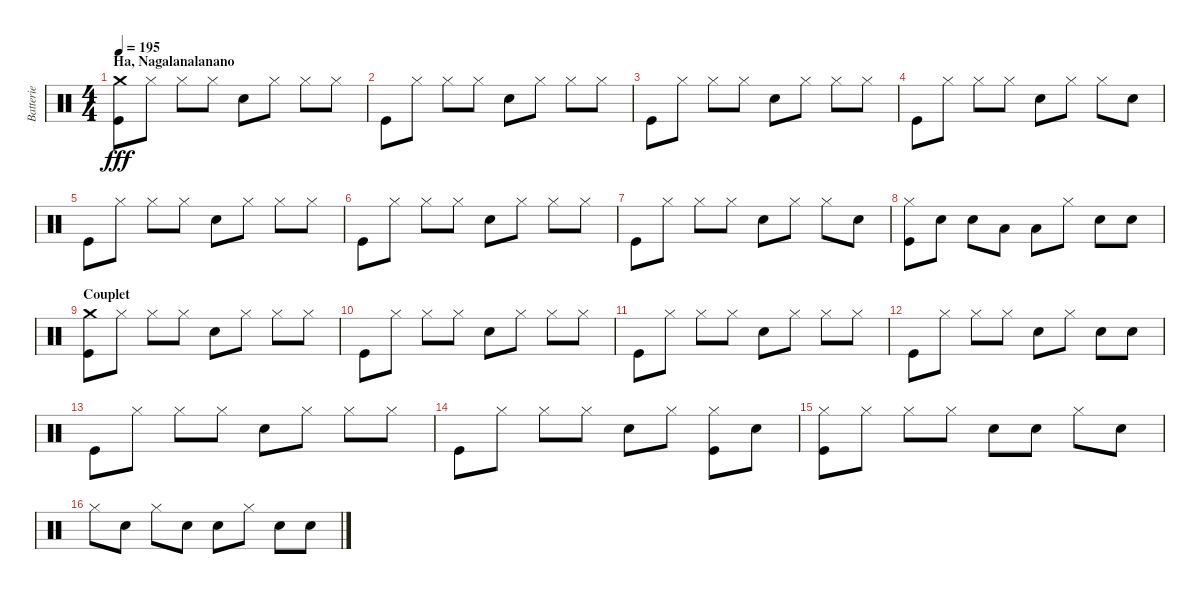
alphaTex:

\track ("Batterie" "Batterie") {instrument percussion}
\staff {score}
\articulation defaults
\ts (4 4)
\section ("" "Ha, Nagalanalanano")
\tempo 195
\clef neutral
\ks c
("Crash medium (hit)" "Kick (hit)").8{dy fff} "Hi-Hat (closed)".8 "Hi-Hat (closed)".8 "Hi-Hat (closed)".8 "Electric Snare (hit)".8 "Hi-Hat (closed)".8 "Hi-Hat (closed)".8 "Hi-Hat (closed)".8 |
"Kick (hit)".8 "Hi-Hat (closed)".8 "Hi-Hat (closed)".8 "Hi-Hat (closed)".8 "Electric Snare (hit)".8 "Hi-Hat (closed)".8 "Hi-Hat (closed)".8 "Hi-Hat (closed)".8 |
"Kick (hit)".8 "Hi-Hat (closed)".8 "Hi-Hat (closed)".8 "Hi-Hat (closed)".8 "Electric Snare (hit)".8 "Hi-Hat (closed)".8 "Hi-Hat (closed)".8 "Hi-Hat (closed)".8 |
"Kick (hit)".8 "Hi-Hat (closed)".8 "Hi-Hat (closed)".8 "Hi-Hat (closed)".8 "Electric Snare (hit)".8 "Hi-Hat (closed)".8 "Hi-Hat (closed)".8 "Electric Snare (hit)".8 |
"Kick (hit)".8 "Hi-Hat (closed)".8 "Hi-Hat (closed)".8 "Hi-Hat (closed)".8 "Electric Snare (hit)".8 "Hi-Hat (closed)".8 "Hi-Hat (closed)".8 "Hi-Hat (closed)".8 |
"Kick (hit)".8 "Hi-Hat (closed)".8 "Hi-Hat (closed)".8 "Hi-Hat (closed)".8 "Electric Snare (hit)".8 "Hi-Hat (closed)".8 "Hi-Hat (closed)".8 "Hi-Hat (closed)".8 |
"Kick (hit)".8 "Hi-Hat (closed)".8 "Hi-Hat (closed)".8 "Hi-Hat (closed)".8 "Electric Snare (hit)".8 "Hi-Hat (closed)".8 "Hi-Hat (closed)".8 "Electric Snare (hit)".8 |
("Hi-Hat (closed)" "Kick (hit)").8 "Electric Snare (hit)".8 "Electric Snare (hit)".8 "Low Tom (hit)".8 "Low Tom (hit)".8 "Hi-Hat (closed)".8 "Electric Snare (hit)".8 "Electric Snare (hit)".8 |
\section ("" "Couplet")
("Crash medium (hit)" "Kick (hit)").8 "Hi-Hat (closed)".8 "Hi-Hat (closed)".8 "Hi-Hat (closed)".8 "Electric Snare (hit)".8 "Hi-Hat (closed)".8 "Hi-Hat (closed)".8 "Hi-Hat (closed)".8 |
"Kick (hit)".8 "Hi-Hat (closed)".8 "Hi-Hat (closed)".8 "Hi-Hat (closed)".8 "Electric Snare (hit)".8 "Hi-Hat (closed)".8 "Hi-Hat (closed)".8 "Hi-Hat (closed)".8 |
"Kick (hit)".8 "Hi-Hat (closed)".8 "Hi-Hat (closed)".8 "Hi-Hat (closed)".8 "Electric Snare (hit)".8 "Hi-Hat (closed)".8 "Hi-Hat (closed)".8 "Hi-Hat (closed)".8 |
"Kick (hit)".8 "Hi-Hat (closed)".8 "Hi-Hat (closed)".8 "Hi-Hat (closed)".8 "Electric Snare (hit)".8 "Hi-Hat (closed)".8 "Electric Snare (hit)".8 "Electric Snare (hit)".8 |
"Kick (hit)".8 "Hi-Hat (closed)".8 "Hi-Hat (closed)".8 "Hi-Hat (closed)".8 "Electric Snare (hit)".8 "Hi-Hat (closed)".8 "Hi-Hat (closed)".8 "Hi-Hat (closed)".8 |
"Kick (hit)".8 "Hi-Hat (closed)".8 "Hi-Hat (closed)".8 "Hi-Hat (closed)".8 "Electric Snare (hit)".8 "Hi-Hat (closed)".8 ("Hi-Hat (closed)" "Kick (hit)").8 "Electric Snare (hit)".8 |
("Hi-Hat (closed)" "Kick (hit)").8 "Hi-Hat (closed)".8 "Hi-Hat (closed)".8 "Hi-Hat (closed)".8 "Electric Snare (hit)".8 "Electric Snare (hit)".8 "Hi-Hat (closed)".8 "Electric Snare (hit)".8 |
"Hi-Hat (closed)".8 "Electric Snare (hit)".8 "Hi-Hat (closed)".8 "Electric Snare (hit)".8 "Electric Snare (hit)".8 "Hi-Hat (closed)".8 "Electric Snare (hit)".8 "Electric Snare (hit)".8
